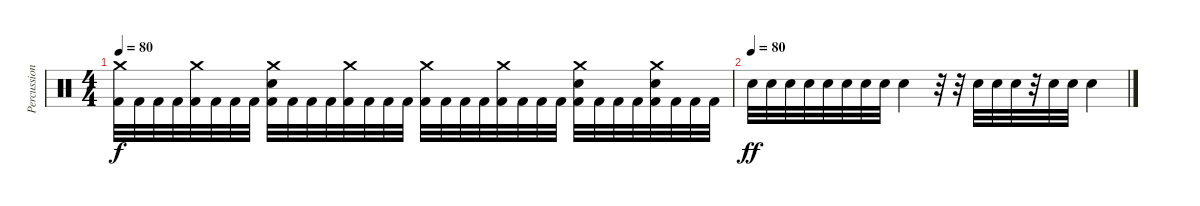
\track ("Percussion" "Percussion") {instrument percussion}
\staff {score}
\articulation defaults
\ts (4 4)
\tempo 80
\clef neutral
\ks c
("Crash medium (hit)" "Kick (hit) 2").32{dy f} "Kick (hit) 2".32 "Kick (hit) 2".32 "Kick (hit) 2".32 ("Crash medium (hit)" "Kick (hit) 2").32 "Kick (hit) 2".32 "Kick (hit) 2".32 "Kick (hit) 2".32 ("Crash medium (hit)" "Electric Snare (hit)" "Kick (hit) 2").32 "Kick (hit) 2".32 "Kick (hit) 2".32 "Kick (hit) 2".32 ("Crash medium (hit)" "Kick (hit) 2").32 "Kick (hit) 2".32 "Kick (hit) 2".32 "Kick (hit) 2".32 ("Crash medium (hit)" "Kick (hit) 2").32 "Kick (hit) 2".32 "Kick (hit) 2".32 "Kick (hit) 2".32 ("Crash medium (hit)" "Kick (hit) 2").32 "Kick (hit) 2".32 "Kick (hit) 2".32 "Kick (hit) 2".32 ("Crash medium (hit)" "Electric Snare (hit)" "Kick (hit) 2").32 "Kick (hit) 2".32 "Kick (hit) 2".32 "Kick (hit) 2".32 ("Crash medium (hit)" "Electric Snare (hit)" "Kick (hit) 2").32 "Kick (hit) 2".32 "Kick (hit) 2".32 "Kick (hit) 2".32 |
\tempo (80)
"Electric Snare (hit)".32{dy ff} "Electric Snare (hit)".32 "Electric Snare (hit)".32 "Electric Snare (hit)".32 "Electric Snare (hit)".32 "Electric Snare (hit)".32 "Electric Snare (hit)".32 "Electric Snare (hit)".32 "Electric Snare (hit)".4 r.32 r.32 "Electric Snare (hit)".32 "Electric Snare (hit)".32 "Electric Snare (hit)".32 r.32 "Electric Snare (hit)".32 "Electric Snare (hit)".32 "Electric Snare (hit)".4
